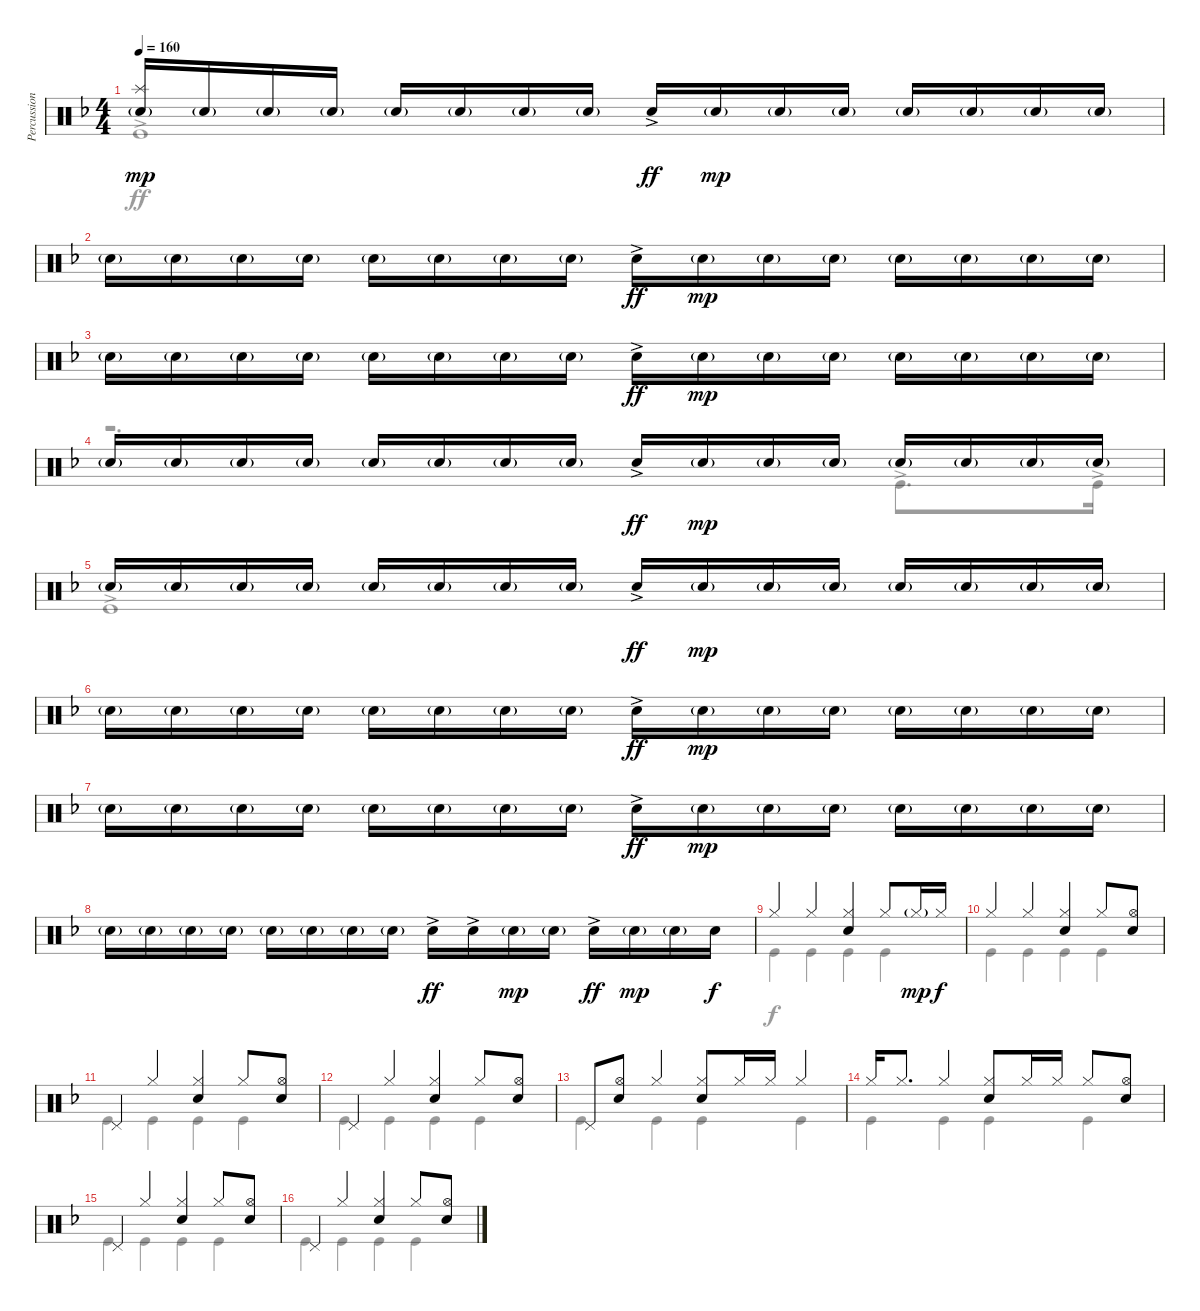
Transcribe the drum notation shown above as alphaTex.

\track ("Percussion" "Percussion") {instrument percussion}
\staff {score}
\articulation defaults
\voice
\ts (4 4)
\tempo 160
\clef neutral
\ks dminor
("Splash (hit)" "Snare (hit) 2"{g}).16{dy mp} "Snare (hit) 2"{g}.16 "Snare (hit) 2"{g}.16 "Snare (hit) 2"{g}.16 "Snare (hit) 2"{g}.16 "Snare (hit) 2"{g}.16 "Snare (hit) 2"{g}.16 "Snare (hit) 2"{g}.16 "Snare (hit) 2"{ac}.16{dy ff} "Snare (hit) 2"{g}.16{dy mp} "Snare (hit) 2"{g}.16 "Snare (hit) 2"{g}.16 "Snare (hit) 2"{g}.16 "Snare (hit) 2"{g}.16 "Snare (hit) 2"{g}.16 "Snare (hit) 2"{g}.16 |
"Snare (hit) 2"{g}.16 "Snare (hit) 2"{g}.16 "Snare (hit) 2"{g}.16 "Snare (hit) 2"{g}.16 "Snare (hit) 2"{g}.16 "Snare (hit) 2"{g}.16 "Snare (hit) 2"{g}.16 "Snare (hit) 2"{g}.16 "Snare (hit) 2"{ac}.16{dy ff} "Snare (hit) 2"{g}.16{dy mp} "Snare (hit) 2"{g}.16 "Snare (hit) 2"{g}.16 "Snare (hit) 2"{g}.16 "Snare (hit) 2"{g}.16 "Snare (hit) 2"{g}.16 "Snare (hit) 2"{g}.16 |
"Snare (hit) 2"{g}.16 "Snare (hit) 2"{g}.16 "Snare (hit) 2"{g}.16 "Snare (hit) 2"{g}.16 "Snare (hit) 2"{g}.16 "Snare (hit) 2"{g}.16 "Snare (hit) 2"{g}.16 "Snare (hit) 2"{g}.16 "Snare (hit) 2"{ac}.16{dy ff} "Snare (hit) 2"{g}.16{dy mp} "Snare (hit) 2"{g}.16 "Snare (hit) 2"{g}.16 "Snare (hit) 2"{g}.16 "Snare (hit) 2"{g}.16 "Snare (hit) 2"{g}.16 "Snare (hit) 2"{g}.16 |
"Snare (hit) 2"{g}.16 "Snare (hit) 2"{g}.16 "Snare (hit) 2"{g}.16 "Snare (hit) 2"{g}.16 "Snare (hit) 2"{g}.16 "Snare (hit) 2"{g}.16 "Snare (hit) 2"{g}.16 "Snare (hit) 2"{g}.16 "Snare (hit) 2"{ac}.16{dy ff} "Snare (hit) 2"{g}.16{dy mp} "Snare (hit) 2"{g}.16 "Snare (hit) 2"{g}.16 "Snare (hit) 2"{g}.16 "Snare (hit) 2"{g}.16 "Snare (hit) 2"{g}.16 "Snare (hit) 2"{g}.16 |
"Snare (hit) 2"{g}.16 "Snare (hit) 2"{g}.16 "Snare (hit) 2"{g}.16 "Snare (hit) 2"{g}.16 "Snare (hit) 2"{g}.16 "Snare (hit) 2"{g}.16 "Snare (hit) 2"{g}.16 "Snare (hit) 2"{g}.16 "Snare (hit) 2"{ac}.16{dy ff} "Snare (hit) 2"{g}.16{dy mp} "Snare (hit) 2"{g}.16 "Snare (hit) 2"{g}.16 "Snare (hit) 2"{g}.16 "Snare (hit) 2"{g}.16 "Snare (hit) 2"{g}.16 "Snare (hit) 2"{g}.16 |
"Snare (hit) 2"{g}.16 "Snare (hit) 2"{g}.16 "Snare (hit) 2"{g}.16 "Snare (hit) 2"{g}.16 "Snare (hit) 2"{g}.16 "Snare (hit) 2"{g}.16 "Snare (hit) 2"{g}.16 "Snare (hit) 2"{g}.16 "Snare (hit) 2"{ac}.16{dy ff} "Snare (hit) 2"{g}.16{dy mp} "Snare (hit) 2"{g}.16 "Snare (hit) 2"{g}.16 "Snare (hit) 2"{g}.16 "Snare (hit) 2"{g}.16 "Snare (hit) 2"{g}.16 "Snare (hit) 2"{g}.16 |
"Snare (hit) 2"{g}.16 "Snare (hit) 2"{g}.16 "Snare (hit) 2"{g}.16 "Snare (hit) 2"{g}.16 "Snare (hit) 2"{g}.16 "Snare (hit) 2"{g}.16 "Snare (hit) 2"{g}.16 "Snare (hit) 2"{g}.16 "Snare (hit) 2"{ac}.16{dy ff} "Snare (hit) 2"{g}.16{dy mp} "Snare (hit) 2"{g}.16 "Snare (hit) 2"{g}.16 "Snare (hit) 2"{g}.16 "Snare (hit) 2"{g}.16 "Snare (hit) 2"{g}.16 "Snare (hit) 2"{g}.16 |
"Snare (hit) 2"{g}.16 "Snare (hit) 2"{g}.16 "Snare (hit) 2"{g}.16 "Snare (hit) 2"{g}.16 "Snare (hit) 2"{g}.16 "Snare (hit) 2"{g}.16 "Snare (hit) 2"{g}.16 "Snare (hit) 2"{g}.16 "Snare (hit) 2"{ac}.16{dy ff} "Snare (hit) 2"{ac}.16 "Snare (hit) 2"{g}.16{dy mp} "Snare (hit) 2"{g}.16 "Snare (hit) 2"{ac}.16{dy ff} "Snare (hit) 2"{g}.16{dy mp} "Snare (hit) 2"{g}.16 "Snare (hit) 2".16{dy f} |
"Hi-Hat (closed)".4 "Hi-Hat (closed)".4 ("Hi-Hat (closed)" "Snare (hit) 2").4 "Hi-Hat (closed)".8 "Hi-Hat (closed)"{g}.16{dy mp} "Hi-Hat (closed)".16{dy f} |
"Hi-Hat (closed)".4 "Hi-Hat (closed)".4 ("Hi-Hat (closed)" "Snare (hit) 2").4 "Hi-Hat (closed)".8 ("Hi-Hat (open)" "Snare (hit) 2").8 |
"Pedal Hi-Hat (hit)".4 "Hi-Hat (closed)".4 ("Hi-Hat (closed)" "Snare (hit) 2").4 "Hi-Hat (closed)".8 ("Hi-Hat (open)" "Snare (hit) 2").8 |
"Pedal Hi-Hat (hit)".4 "Hi-Hat (closed)".4 ("Hi-Hat (closed)" "Snare (hit) 2").4 "Hi-Hat (closed)".8 ("Hi-Hat (open)" "Snare (hit) 2").8 |
"Pedal Hi-Hat (hit)".8 ("Hi-Hat (open)" "Snare (hit) 2").8 "Hi-Hat (closed)".4 ("Hi-Hat (closed)" "Snare (hit) 2").8 "Hi-Hat (closed)".16 "Hi-Hat (closed)".16 "Hi-Hat (closed)".4 |
"Hi-Hat (closed)".16 "Hi-Hat (closed)".8{d} "Hi-Hat (closed)".4 ("Hi-Hat (closed)" "Snare (hit) 2").8 "Hi-Hat (closed)".16 "Hi-Hat (closed)".16 "Hi-Hat (closed)".8 ("Hi-Hat (open)" "Snare (hit) 2").8 |
"Pedal Hi-Hat (hit)".4 "Hi-Hat (closed)".4 ("Hi-Hat (closed)" "Snare (hit) 2").4 "Hi-Hat (closed)".8 ("Hi-Hat (open)" "Snare (hit) 2").8 |
"Pedal Hi-Hat (hit)".4 "Hi-Hat (closed)".4 ("Hi-Hat (closed)" "Snare (hit) 2").4 "Hi-Hat (closed)".8 ("Hi-Hat (open)" "Snare (hit) 2").8
\voice
\clef neutral
\ottava regular
\simile none
\ks dminor "Kick (hit)"{ac}.1{dy ff}
|
|
|
r.2{d} "Kick (hit)"{ac}.8{d} "Kick (hit)"{ac}.16 |
"Kick (hit)"{ac}.1 |
|
|
|
"Kick (hit)".4{dy f} "Kick (hit)".4 "Kick (hit)".4 "Kick (hit)".4 |
"Kick (hit)".4 "Kick (hit)".4 "Kick (hit)".4 "Kick (hit)".4 |
"Kick (hit)".4 "Kick (hit)".4 "Kick (hit)".4 "Kick (hit)".4 |
"Kick (hit)".4 "Kick (hit)".4 "Kick (hit)".4 "Kick (hit)".4 |
"Kick (hit)".4 "Kick (hit)".4 "Kick (hit)".4 "Kick (hit)".4 |
"Kick (hit)".4 "Kick (hit)".4 "Kick (hit)".4 "Kick (hit)".4 |
"Kick (hit)".4 "Kick (hit)".4 "Kick (hit)".4 "Kick (hit)".4 |
"Kick (hit)".4 "Kick (hit)".4 "Kick (hit)".4 "Kick (hit)".4
